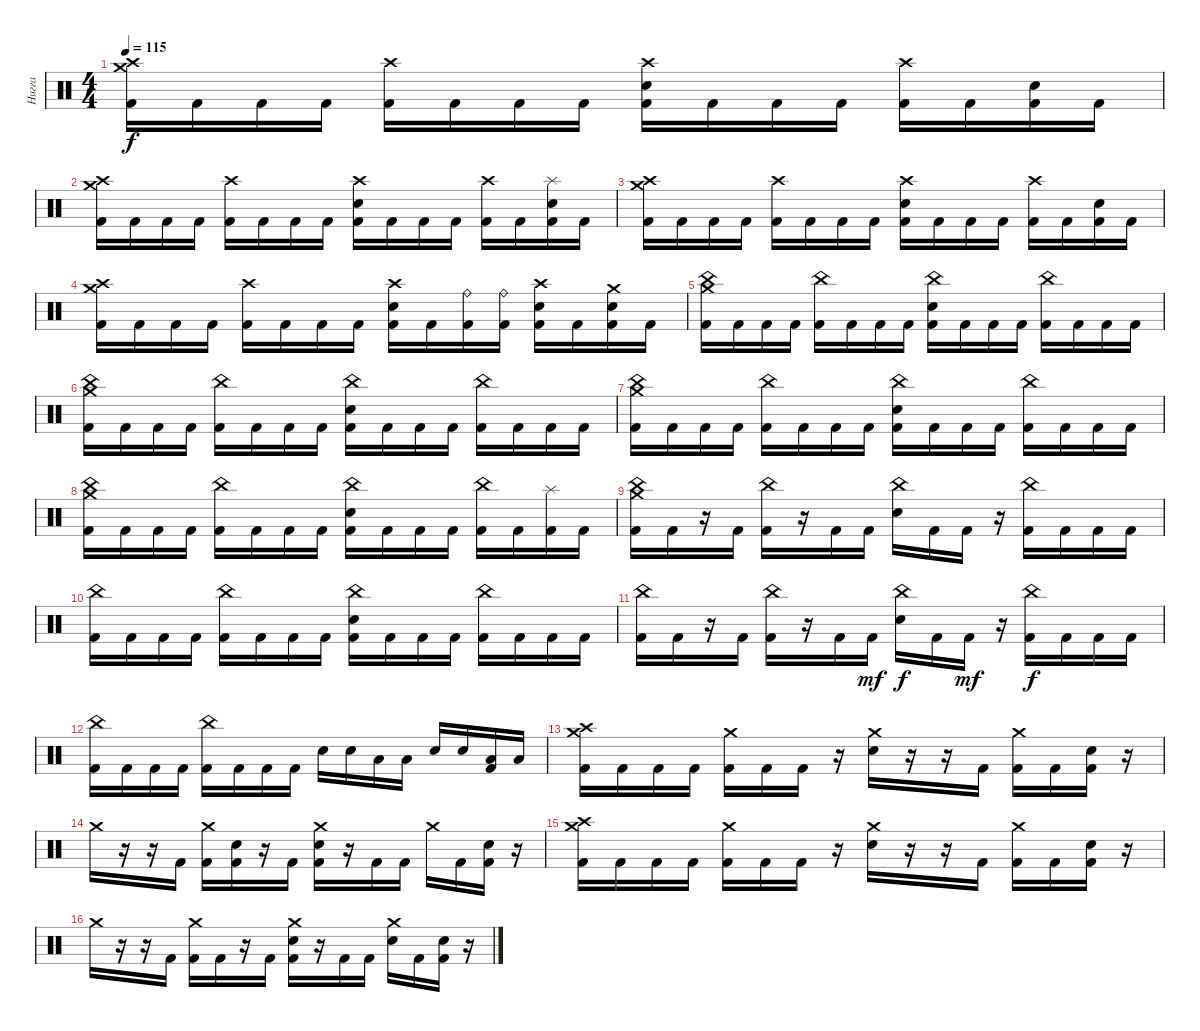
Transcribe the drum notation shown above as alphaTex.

\track ("Нигга" "Нигга") {instrument percussion}
\staff
\articulation defaults
\ts (4 4)
\tempo 115
\clef neutral
\ks c
("Crash high (hit)" "Crash medium (hit)" "Kick (hit) 2").16{dy f} "Kick (hit) 2".16 "Kick (hit) 2".16 "Kick (hit) 2".16 ("Crash high (hit)" "Kick (hit) 2").16 "Kick (hit) 2".16 "Kick (hit) 2".16 "Kick (hit) 2".16 ("Crash high (hit)" "Electric Snare (hit)" "Kick (hit) 2").16 "Kick (hit) 2".16 "Kick (hit) 2".16 "Kick (hit) 2".16 ("Crash high (hit)" "Kick (hit) 2").16 "Kick (hit) 2".16 ("Electric Snare (hit)" "Kick (hit) 2").16 "Kick (hit) 2".16 |
("Crash high (hit)" "Crash medium (hit)" "Kick (hit) 2").16 "Kick (hit) 2".16 "Kick (hit) 2".16 "Kick (hit) 2".16 ("Crash high (hit)" "Kick (hit) 2").16 "Kick (hit) 2".16 "Kick (hit) 2".16 "Kick (hit) 2".16 ("Crash high (hit)" "Electric Snare (hit)" "Kick (hit) 2").16 "Kick (hit) 2".16 "Kick (hit) 2".16 "Kick (hit) 2".16 ("Crash high (hit)" "Kick (hit) 2").16 "Kick (hit) 2".16 ("Splash (hit)" "Electric Snare (hit)" "Kick (hit) 2").16 "Kick (hit) 2".16 |
("Crash high (hit)" "Crash medium (hit)" "Kick (hit) 2").16 "Kick (hit) 2".16 "Kick (hit) 2".16 "Kick (hit) 2".16 ("Crash high (hit)" "Kick (hit) 2").16 "Kick (hit) 2".16 "Kick (hit) 2".16 "Kick (hit) 2".16 ("Crash high (hit)" "Electric Snare (hit)" "Kick (hit) 2").16 "Kick (hit) 2".16 "Kick (hit) 2".16 "Kick (hit) 2".16 ("Crash high (hit)" "Kick (hit) 2").16 "Kick (hit) 2".16 ("Electric Snare (hit)" "Kick (hit) 2").16 "Kick (hit) 2".16 |
("Crash high (hit)" "Crash medium (hit)" "Kick (hit) 2").16 "Kick (hit) 2".16 "Kick (hit) 2".16 "Kick (hit) 2".16 ("Crash high (hit)" "Kick (hit) 2").16 "Kick (hit) 2".16 "Kick (hit) 2".16 "Kick (hit) 2".16 ("Crash high (hit)" "Electric Snare (hit)" "Kick (hit) 2").16 "Kick (hit) 2".16 ("Ride (bell)" "Kick (hit) 2").16 ("Ride (bell)" "Kick (hit) 2").16 ("Crash high (hit)" "Electric Snare (hit)" "Kick (hit) 2").16 "Kick (hit) 2".16 ("Crash medium (hit)" "Electric Snare (hit)" "Kick (hit) 2").16 "Kick (hit) 2".16 |
("China (hit)" "Crash medium (hit)" "Kick (hit) 2").16 "Kick (hit) 2".16 "Kick (hit) 2".16 "Kick (hit) 2".16 ("China (hit)" "Kick (hit) 2").16 "Kick (hit) 2".16 "Kick (hit) 2".16 "Kick (hit) 2".16 ("China (hit)" "Electric Snare (hit)" "Kick (hit) 2").16 "Kick (hit) 2".16 "Kick (hit) 2".16 "Kick (hit) 2".16 ("China (hit)" "Kick (hit) 2").16 "Kick (hit) 2".16 "Kick (hit) 2".16 "Kick (hit) 2".16 |
("China (hit)" "Crash medium (hit)" "Kick (hit) 2").16 "Kick (hit) 2".16 "Kick (hit) 2".16 "Kick (hit) 2".16 ("China (hit)" "Kick (hit) 2").16 "Kick (hit) 2".16 "Kick (hit) 2".16 "Kick (hit) 2".16 ("China (hit)" "Electric Snare (hit)" "Kick (hit) 2").16 "Kick (hit) 2".16 "Kick (hit) 2".16 "Kick (hit) 2".16 ("China (hit)" "Kick (hit) 2").16 "Kick (hit) 2".16 "Kick (hit) 2".16 "Kick (hit) 2".16 |
("China (hit)" "Crash medium (hit)" "Kick (hit) 2").16 "Kick (hit) 2".16 "Kick (hit) 2".16 "Kick (hit) 2".16 ("China (hit)" "Kick (hit) 2").16 "Kick (hit) 2".16 "Kick (hit) 2".16 "Kick (hit) 2".16 ("China (hit)" "Electric Snare (hit)" "Kick (hit) 2").16 "Kick (hit) 2".16 "Kick (hit) 2".16 "Kick (hit) 2".16 ("China (hit)" "Kick (hit) 2").16 "Kick (hit) 2".16 "Kick (hit) 2".16 "Kick (hit) 2".16 |
("China (hit)" "Crash medium (hit)" "Kick (hit) 2").16 "Kick (hit) 2".16 "Kick (hit) 2".16 "Kick (hit) 2".16 ("China (hit)" "Kick (hit) 2").16 "Kick (hit) 2".16 "Kick (hit) 2".16 "Kick (hit) 2".16 ("China (hit)" "Electric Snare (hit)" "Kick (hit) 2").16 "Kick (hit) 2".16 "Kick (hit) 2".16 "Kick (hit) 2".16 ("China (hit)" "Kick (hit) 2").16 "Kick (hit) 2".16 ("Splash (hit)" "Kick (hit) 2").16 "Kick (hit) 2".16 |
("China (hit)" "Crash medium (hit)" "Kick (hit) 2").16 "Kick (hit) 2".16 r.16 "Kick (hit) 2".16 ("China (hit)" "Kick (hit) 2").16 r.16 "Kick (hit) 2".16 "Kick (hit) 2".16 ("China (hit)" "Electric Snare (hit)").16 "Kick (hit) 2".16 "Kick (hit) 2".16 r.16 ("China (hit)" "Kick (hit) 2").16 "Kick (hit) 2".16 "Kick (hit) 2".16 "Kick (hit) 2".16 |
("China (hit)" "Kick (hit) 2").16 "Kick (hit) 2".16 "Kick (hit) 2".16 "Kick (hit) 2".16 ("China (hit)" "Kick (hit) 2").16 "Kick (hit) 2".16 "Kick (hit) 2".16 "Kick (hit) 2".16 ("China (hit)" "Electric Snare (hit)" "Kick (hit) 2").16 "Kick (hit) 2".16 "Kick (hit) 2".16 "Kick (hit) 2".16 ("China (hit)" "Kick (hit) 2").16 "Kick (hit) 2".16 "Kick (hit) 2".16 "Kick (hit) 2".16 |
("China (hit)" "Kick (hit) 2").16 "Kick (hit) 2".16 r.16 "Kick (hit) 2".16 ("China (hit)" "Kick (hit) 2").16 r.16 "Kick (hit) 2".16 "Kick (hit) 2".16{dy mf} ("China (hit)" "Electric Snare (hit)").16{dy f} "Kick (hit) 2".16 "Kick (hit) 2".16{dy mf} r.16 ("China (hit)" "Kick (hit) 2").16{dy f} "Kick (hit) 2".16 "Kick (hit) 2".16 "Kick (hit) 2".16 |
("China (hit)" "Kick (hit) 2").16 "Kick (hit) 2".16 "Kick (hit) 2".16 "Kick (hit) 2".16 ("China (hit)" "Kick (hit) 2").16 "Kick (hit) 2".16 "Kick (hit) 2".16 "Kick (hit) 2".16 "Electric Snare (hit)".16 "Electric Snare (hit)".16 "Low Tom (hit)".16 "Low Tom (hit)".16 "Electric Snare (hit)".16 "Electric Snare (hit)".16 ("Low Tom (hit)" "Kick (hit) 2").16 "Low Tom (hit)".16 |
("Crash high (hit)" "Crash medium (hit)" "Kick (hit) 2").16 "Kick (hit) 2".16 "Kick (hit) 2".16 "Kick (hit) 2".16 ("Crash medium (hit)" "Kick (hit) 2").16 "Kick (hit) 2".16 "Kick (hit) 2".16 r.16 ("Crash medium (hit)" "Electric Snare (hit)").16 r.16 r.16 "Kick (hit) 2".16 ("Crash medium (hit)" "Kick (hit) 2").16 "Kick (hit) 2".16 ("Electric Snare (hit)" "Kick (hit) 2").16 r.16 |
"Crash medium (hit)".16 r.16 r.16 "Kick (hit) 2".16 ("Crash medium (hit)" "Kick (hit) 2").16 ("Electric Snare (hit)" "Kick (hit) 2").16 r.16 "Kick (hit) 2".16 ("Crash medium (hit)" "Electric Snare (hit)" "Kick (hit) 2").16 r.16 "Kick (hit) 2".16 "Kick (hit) 2".16 "Crash medium (hit)".16 "Kick (hit) 2".16 ("Electric Snare (hit)" "Kick (hit) 2").16 r.16 |
("Crash high (hit)" "Crash medium (hit)" "Kick (hit) 2").16 "Kick (hit) 2".16 "Kick (hit) 2".16 "Kick (hit) 2".16 ("Crash medium (hit)" "Kick (hit) 2").16 "Kick (hit) 2".16 "Kick (hit) 2".16 r.16 ("Crash medium (hit)" "Electric Snare (hit)").16 r.16 r.16 "Kick (hit) 2".16 ("Crash medium (hit)" "Kick (hit) 2").16 "Kick (hit) 2".16 ("Electric Snare (hit)" "Kick (hit) 2").16 r.16 |
"Crash medium (hit)".16 r.16 r.16 "Kick (hit) 2".16 ("Crash medium (hit)" "Kick (hit) 2").16 "Kick (hit) 2".16 r.16 "Kick (hit) 2".16 ("Crash medium (hit)" "Electric Snare (hit)" "Kick (hit) 2").16 r.16 "Kick (hit) 2".16 "Kick (hit) 2".16 ("Crash medium (hit)" "Electric Snare (hit)").16 "Kick (hit) 2".16 ("Electric Snare (hit)" "Kick (hit) 2").16 r.16
